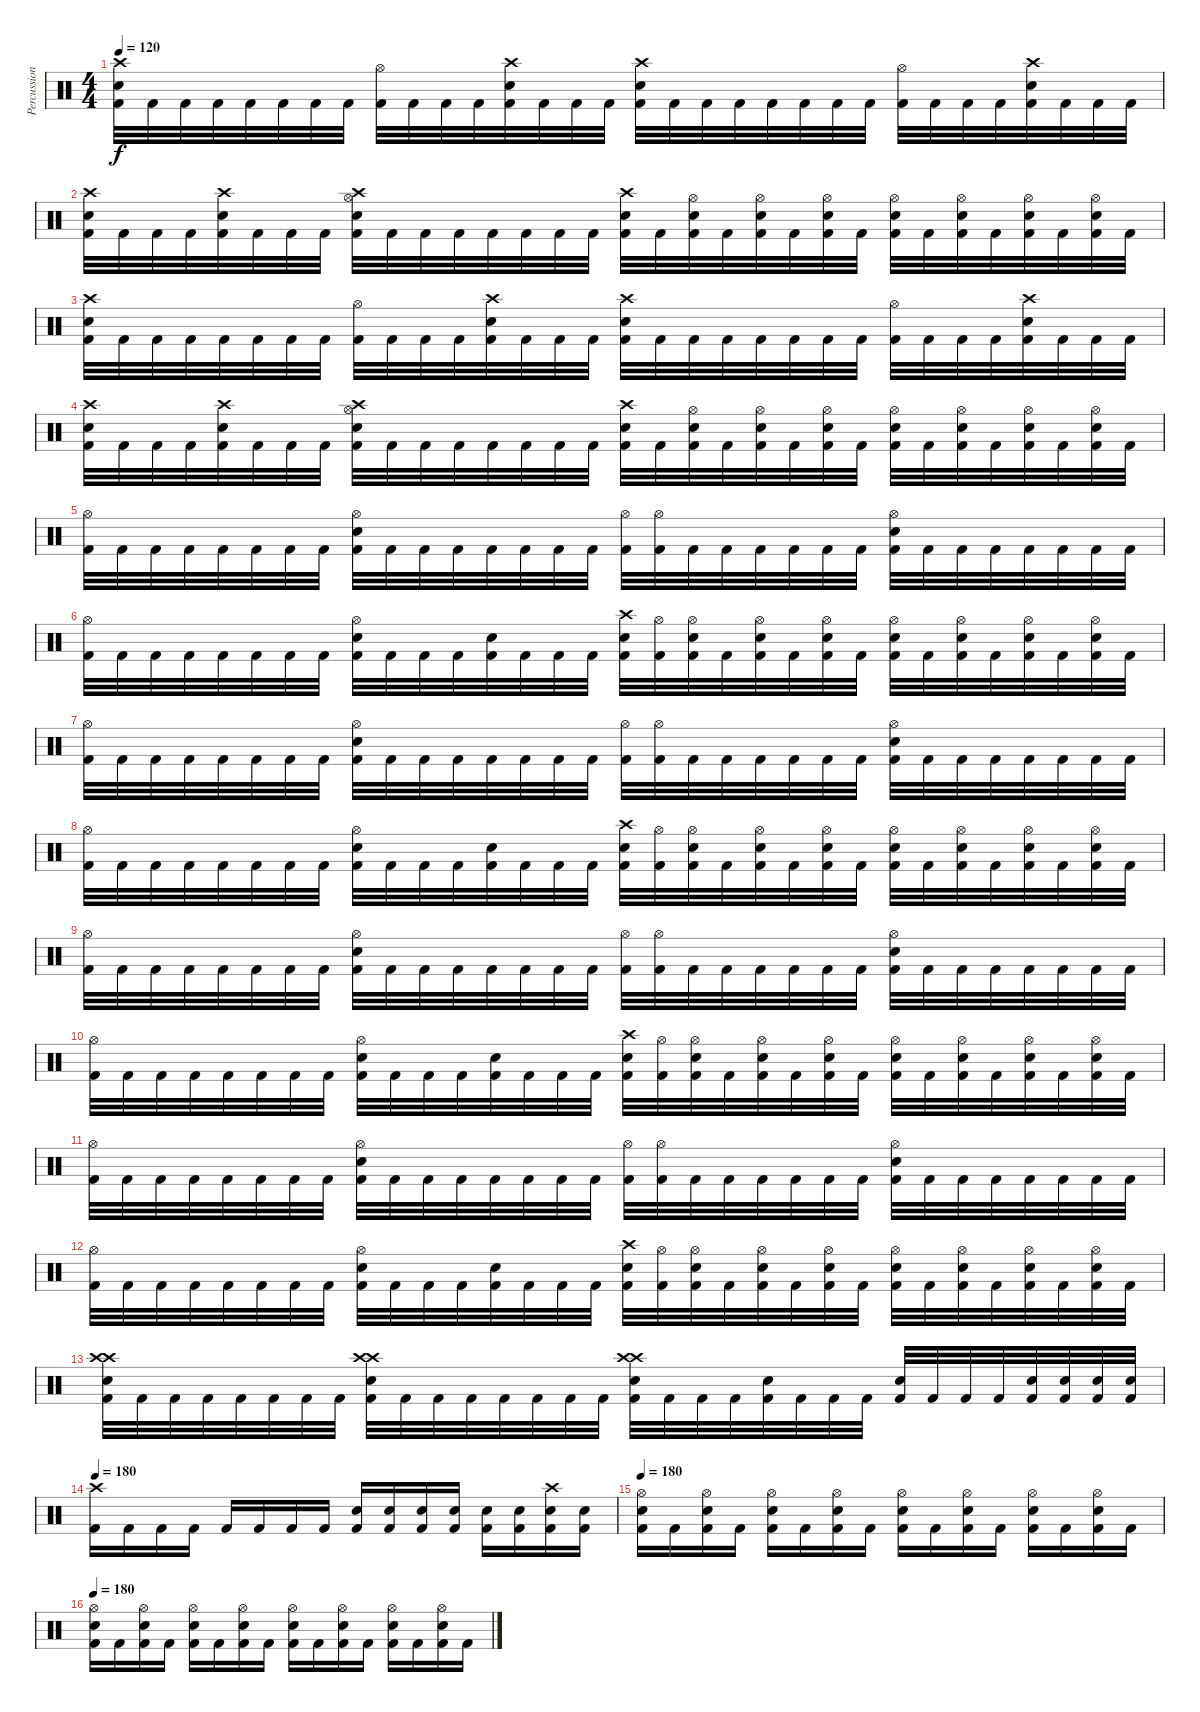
\track ("Percussion" "Percussion") {instrument percussion}
\staff {score}
\articulation defaults
\ts (4 4)
\tempo 120
\clef neutral
\ks c
("Crash high (hit)" "Snare (hit) 2" "Kick (hit) 2").32{dy f} "Kick (hit) 2".32 "Kick (hit) 2".32 "Kick (hit) 2".32 "Kick (hit) 2".32 "Kick (hit) 2".32 "Kick (hit) 2".32 "Kick (hit) 2".32 ("Hi-Hat (open)" "Kick (hit) 2").32 "Kick (hit) 2".32 "Kick (hit) 2".32 "Kick (hit) 2".32 ("Crash high (hit)" "Snare (hit) 2" "Kick (hit) 2").32 "Kick (hit) 2".32 "Kick (hit) 2".32 "Kick (hit) 2".32 ("Crash high (hit)" "Snare (hit) 2" "Kick (hit) 2").32 "Kick (hit) 2".32 "Kick (hit) 2".32 "Kick (hit) 2".32 "Kick (hit) 2".32 "Kick (hit) 2".32 "Kick (hit) 2".32 "Kick (hit) 2".32 ("Hi-Hat (open)" "Kick (hit) 2").32 "Kick (hit) 2".32 "Kick (hit) 2".32 "Kick (hit) 2".32 ("Crash high (hit)" "Snare (hit) 2" "Kick (hit) 2").32 "Kick (hit) 2".32 "Kick (hit) 2".32 "Kick (hit) 2".32 |
("Crash high (hit)" "Snare (hit) 2" "Kick (hit) 2").32 "Kick (hit) 2".32 "Kick (hit) 2".32 "Kick (hit) 2".32 ("Crash high (hit)" "Snare (hit) 2" "Kick (hit) 2").32 "Kick (hit) 2".32 "Kick (hit) 2".32 "Kick (hit) 2".32 ("Crash high (hit)" "Snare (hit) 2" "Hi-Hat (open)" "Kick (hit) 2").32 "Kick (hit) 2".32 "Kick (hit) 2".32 "Kick (hit) 2".32 "Kick (hit) 2".32 "Kick (hit) 2".32 "Kick (hit) 2".32 "Kick (hit) 2".32 ("Crash high (hit)" "Snare (hit) 2" "Kick (hit) 2").32 "Kick (hit) 2".32 ("Hi-Hat (open)" "Snare (hit) 2" "Kick (hit) 2").32 "Kick (hit) 2".32 ("Hi-Hat (open)" "Snare (hit) 2" "Kick (hit) 2").32 "Kick (hit) 2".32 ("Hi-Hat (open)" "Snare (hit) 2" "Kick (hit) 2").32 "Kick (hit) 2".32 ("Hi-Hat (open)" "Snare (hit) 2" "Kick (hit) 2").32 "Kick (hit) 2".32 ("Hi-Hat (open)" "Snare (hit) 2" "Kick (hit) 2").32 "Kick (hit) 2".32 ("Hi-Hat (open)" "Snare (hit) 2" "Kick (hit) 2").32 "Kick (hit) 2".32 ("Hi-Hat (open)" "Snare (hit) 2" "Kick (hit) 2").32 "Kick (hit) 2".32 |
("Crash high (hit)" "Snare (hit) 2" "Kick (hit) 2").32 "Kick (hit) 2".32 "Kick (hit) 2".32 "Kick (hit) 2".32 "Kick (hit) 2".32 "Kick (hit) 2".32 "Kick (hit) 2".32 "Kick (hit) 2".32 ("Hi-Hat (open)" "Kick (hit) 2").32 "Kick (hit) 2".32 "Kick (hit) 2".32 "Kick (hit) 2".32 ("Crash high (hit)" "Snare (hit) 2" "Kick (hit) 2").32 "Kick (hit) 2".32 "Kick (hit) 2".32 "Kick (hit) 2".32 ("Crash high (hit)" "Snare (hit) 2" "Kick (hit) 2").32 "Kick (hit) 2".32 "Kick (hit) 2".32 "Kick (hit) 2".32 "Kick (hit) 2".32 "Kick (hit) 2".32 "Kick (hit) 2".32 "Kick (hit) 2".32 ("Hi-Hat (open)" "Kick (hit) 2").32 "Kick (hit) 2".32 "Kick (hit) 2".32 "Kick (hit) 2".32 ("Crash high (hit)" "Snare (hit) 2" "Kick (hit) 2").32 "Kick (hit) 2".32 "Kick (hit) 2".32 "Kick (hit) 2".32 |
("Crash high (hit)" "Snare (hit) 2" "Kick (hit) 2").32 "Kick (hit) 2".32 "Kick (hit) 2".32 "Kick (hit) 2".32 ("Crash high (hit)" "Snare (hit) 2" "Kick (hit) 2").32 "Kick (hit) 2".32 "Kick (hit) 2".32 "Kick (hit) 2".32 ("Crash high (hit)" "Snare (hit) 2" "Hi-Hat (open)" "Kick (hit) 2").32 "Kick (hit) 2".32 "Kick (hit) 2".32 "Kick (hit) 2".32 "Kick (hit) 2".32 "Kick (hit) 2".32 "Kick (hit) 2".32 "Kick (hit) 2".32 ("Crash high (hit)" "Snare (hit) 2" "Kick (hit) 2").32 "Kick (hit) 2".32 ("Hi-Hat (open)" "Snare (hit) 2" "Kick (hit) 2").32 "Kick (hit) 2".32 ("Hi-Hat (open)" "Snare (hit) 2" "Kick (hit) 2").32 "Kick (hit) 2".32 ("Hi-Hat (open)" "Snare (hit) 2" "Kick (hit) 2").32 "Kick (hit) 2".32 ("Hi-Hat (open)" "Snare (hit) 2" "Kick (hit) 2").32 "Kick (hit) 2".32 ("Hi-Hat (open)" "Snare (hit) 2" "Kick (hit) 2").32 "Kick (hit) 2".32 ("Hi-Hat (open)" "Snare (hit) 2" "Kick (hit) 2").32 "Kick (hit) 2".32 ("Hi-Hat (open)" "Snare (hit) 2" "Kick (hit) 2").32 "Kick (hit) 2".32 |
("Hi-Hat (open)" "Kick (hit) 2").32 "Kick (hit) 2".32 "Kick (hit) 2".32 "Kick (hit) 2".32 "Kick (hit) 2".32 "Kick (hit) 2".32 "Kick (hit) 2".32 "Kick (hit) 2".32 ("Hi-Hat (open)" "Snare (hit) 2" "Kick (hit) 2").32 "Kick (hit) 2".32 "Kick (hit) 2".32 "Kick (hit) 2".32 "Kick (hit) 2".32 "Kick (hit) 2".32 "Kick (hit) 2".32 "Kick (hit) 2".32 ("Hi-Hat (open)" "Kick (hit) 2").32 ("Hi-Hat (open)" "Kick (hit) 2").32 "Kick (hit) 2".32 "Kick (hit) 2".32 "Kick (hit) 2".32 "Kick (hit) 2".32 "Kick (hit) 2".32 "Kick (hit) 2".32 ("Hi-Hat (open)" "Snare (hit) 2" "Kick (hit) 2").32 "Kick (hit) 2".32 "Kick (hit) 2".32 "Kick (hit) 2".32 "Kick (hit) 2".32 "Kick (hit) 2".32 "Kick (hit) 2".32 "Kick (hit) 2".32 |
("Hi-Hat (open)" "Kick (hit) 2").32 "Kick (hit) 2".32 "Kick (hit) 2".32 "Kick (hit) 2".32 "Kick (hit) 2".32 "Kick (hit) 2".32 "Kick (hit) 2".32 "Kick (hit) 2".32 ("Hi-Hat (open)" "Snare (hit) 2" "Kick (hit) 2").32 "Kick (hit) 2".32 "Kick (hit) 2".32 "Kick (hit) 2".32 ("Snare (hit) 2" "Kick (hit) 2").32 "Kick (hit) 2".32 "Kick (hit) 2".32 "Kick (hit) 2".32 ("Crash high (hit)" "Snare (hit) 2" "Kick (hit) 2").32 ("Hi-Hat (open)" "Kick (hit) 2").32 ("Hi-Hat (open)" "Snare (hit) 2" "Kick (hit) 2").32 "Kick (hit) 2".32 ("Hi-Hat (open)" "Snare (hit) 2" "Kick (hit) 2").32 "Kick (hit) 2".32 ("Hi-Hat (open)" "Snare (hit) 2" "Kick (hit) 2").32 "Kick (hit) 2".32 ("Hi-Hat (open)" "Snare (hit) 2" "Kick (hit) 2").32 "Kick (hit) 2".32 ("Hi-Hat (open)" "Snare (hit) 2" "Kick (hit) 2").32 "Kick (hit) 2".32 ("Hi-Hat (open)" "Snare (hit) 2" "Kick (hit) 2").32 "Kick (hit) 2".32 ("Hi-Hat (open)" "Snare (hit) 2" "Kick (hit) 2").32 "Kick (hit) 2".32 |
("Hi-Hat (open)" "Kick (hit) 2").32 "Kick (hit) 2".32 "Kick (hit) 2".32 "Kick (hit) 2".32 "Kick (hit) 2".32 "Kick (hit) 2".32 "Kick (hit) 2".32 "Kick (hit) 2".32 ("Hi-Hat (open)" "Snare (hit) 2" "Kick (hit) 2").32 "Kick (hit) 2".32 "Kick (hit) 2".32 "Kick (hit) 2".32 "Kick (hit) 2".32 "Kick (hit) 2".32 "Kick (hit) 2".32 "Kick (hit) 2".32 ("Hi-Hat (open)" "Kick (hit) 2").32 ("Hi-Hat (open)" "Kick (hit) 2").32 "Kick (hit) 2".32 "Kick (hit) 2".32 "Kick (hit) 2".32 "Kick (hit) 2".32 "Kick (hit) 2".32 "Kick (hit) 2".32 ("Hi-Hat (open)" "Snare (hit) 2" "Kick (hit) 2").32 "Kick (hit) 2".32 "Kick (hit) 2".32 "Kick (hit) 2".32 "Kick (hit) 2".32 "Kick (hit) 2".32 "Kick (hit) 2".32 "Kick (hit) 2".32 |
("Hi-Hat (open)" "Kick (hit) 2").32 "Kick (hit) 2".32 "Kick (hit) 2".32 "Kick (hit) 2".32 "Kick (hit) 2".32 "Kick (hit) 2".32 "Kick (hit) 2".32 "Kick (hit) 2".32 ("Hi-Hat (open)" "Snare (hit) 2" "Kick (hit) 2").32 "Kick (hit) 2".32 "Kick (hit) 2".32 "Kick (hit) 2".32 ("Snare (hit) 2" "Kick (hit) 2").32 "Kick (hit) 2".32 "Kick (hit) 2".32 "Kick (hit) 2".32 ("Crash high (hit)" "Snare (hit) 2" "Kick (hit) 2").32 ("Hi-Hat (open)" "Kick (hit) 2").32 ("Hi-Hat (open)" "Snare (hit) 2" "Kick (hit) 2").32 "Kick (hit) 2".32 ("Hi-Hat (open)" "Snare (hit) 2" "Kick (hit) 2").32 "Kick (hit) 2".32 ("Hi-Hat (open)" "Snare (hit) 2" "Kick (hit) 2").32 "Kick (hit) 2".32 ("Hi-Hat (open)" "Snare (hit) 2" "Kick (hit) 2").32 "Kick (hit) 2".32 ("Hi-Hat (open)" "Snare (hit) 2" "Kick (hit) 2").32 "Kick (hit) 2".32 ("Hi-Hat (open)" "Snare (hit) 2" "Kick (hit) 2").32 "Kick (hit) 2".32 ("Hi-Hat (open)" "Snare (hit) 2" "Kick (hit) 2").32 "Kick (hit) 2".32 |
("Hi-Hat (open)" "Kick (hit) 2").32 "Kick (hit) 2".32 "Kick (hit) 2".32 "Kick (hit) 2".32 "Kick (hit) 2".32 "Kick (hit) 2".32 "Kick (hit) 2".32 "Kick (hit) 2".32 ("Hi-Hat (open)" "Snare (hit) 2" "Kick (hit) 2").32 "Kick (hit) 2".32 "Kick (hit) 2".32 "Kick (hit) 2".32 "Kick (hit) 2".32 "Kick (hit) 2".32 "Kick (hit) 2".32 "Kick (hit) 2".32 ("Hi-Hat (open)" "Kick (hit) 2").32 ("Hi-Hat (open)" "Kick (hit) 2").32 "Kick (hit) 2".32 "Kick (hit) 2".32 "Kick (hit) 2".32 "Kick (hit) 2".32 "Kick (hit) 2".32 "Kick (hit) 2".32 ("Hi-Hat (open)" "Snare (hit) 2" "Kick (hit) 2").32 "Kick (hit) 2".32 "Kick (hit) 2".32 "Kick (hit) 2".32 "Kick (hit) 2".32 "Kick (hit) 2".32 "Kick (hit) 2".32 "Kick (hit) 2".32 |
("Hi-Hat (open)" "Kick (hit) 2").32 "Kick (hit) 2".32 "Kick (hit) 2".32 "Kick (hit) 2".32 "Kick (hit) 2".32 "Kick (hit) 2".32 "Kick (hit) 2".32 "Kick (hit) 2".32 ("Hi-Hat (open)" "Snare (hit) 2" "Kick (hit) 2").32 "Kick (hit) 2".32 "Kick (hit) 2".32 "Kick (hit) 2".32 ("Snare (hit) 2" "Kick (hit) 2").32 "Kick (hit) 2".32 "Kick (hit) 2".32 "Kick (hit) 2".32 ("Crash high (hit)" "Snare (hit) 2" "Kick (hit) 2").32 ("Hi-Hat (open)" "Kick (hit) 2").32 ("Hi-Hat (open)" "Snare (hit) 2" "Kick (hit) 2").32 "Kick (hit) 2".32 ("Hi-Hat (open)" "Snare (hit) 2" "Kick (hit) 2").32 "Kick (hit) 2".32 ("Hi-Hat (open)" "Snare (hit) 2" "Kick (hit) 2").32 "Kick (hit) 2".32 ("Hi-Hat (open)" "Snare (hit) 2" "Kick (hit) 2").32 "Kick (hit) 2".32 ("Hi-Hat (open)" "Snare (hit) 2" "Kick (hit) 2").32 "Kick (hit) 2".32 ("Hi-Hat (open)" "Snare (hit) 2" "Kick (hit) 2").32 "Kick (hit) 2".32 ("Hi-Hat (open)" "Snare (hit) 2" "Kick (hit) 2").32 "Kick (hit) 2".32 |
("Hi-Hat (open)" "Kick (hit) 2").32 "Kick (hit) 2".32 "Kick (hit) 2".32 "Kick (hit) 2".32 "Kick (hit) 2".32 "Kick (hit) 2".32 "Kick (hit) 2".32 "Kick (hit) 2".32 ("Hi-Hat (open)" "Snare (hit) 2" "Kick (hit) 2").32 "Kick (hit) 2".32 "Kick (hit) 2".32 "Kick (hit) 2".32 "Kick (hit) 2".32 "Kick (hit) 2".32 "Kick (hit) 2".32 "Kick (hit) 2".32 ("Hi-Hat (open)" "Kick (hit) 2").32 ("Hi-Hat (open)" "Kick (hit) 2").32 "Kick (hit) 2".32 "Kick (hit) 2".32 "Kick (hit) 2".32 "Kick (hit) 2".32 "Kick (hit) 2".32 "Kick (hit) 2".32 ("Hi-Hat (open)" "Snare (hit) 2" "Kick (hit) 2").32 "Kick (hit) 2".32 "Kick (hit) 2".32 "Kick (hit) 2".32 "Kick (hit) 2".32 "Kick (hit) 2".32 "Kick (hit) 2".32 "Kick (hit) 2".32 |
("Hi-Hat (open)" "Kick (hit) 2").32 "Kick (hit) 2".32 "Kick (hit) 2".32 "Kick (hit) 2".32 "Kick (hit) 2".32 "Kick (hit) 2".32 "Kick (hit) 2".32 "Kick (hit) 2".32 ("Hi-Hat (open)" "Snare (hit) 2" "Kick (hit) 2").32 "Kick (hit) 2".32 "Kick (hit) 2".32 "Kick (hit) 2".32 ("Snare (hit) 2" "Kick (hit) 2").32 "Kick (hit) 2".32 "Kick (hit) 2".32 "Kick (hit) 2".32 ("Crash high (hit)" "Snare (hit) 2" "Kick (hit) 2").32 ("Hi-Hat (open)" "Kick (hit) 2").32 ("Hi-Hat (open)" "Snare (hit) 2" "Kick (hit) 2").32 "Kick (hit) 2".32 ("Hi-Hat (open)" "Snare (hit) 2" "Kick (hit) 2").32 "Kick (hit) 2".32 ("Hi-Hat (open)" "Snare (hit) 2" "Kick (hit) 2").32 "Kick (hit) 2".32 ("Hi-Hat (open)" "Snare (hit) 2" "Kick (hit) 2").32 "Kick (hit) 2".32 ("Hi-Hat (open)" "Snare (hit) 2" "Kick (hit) 2").32 "Kick (hit) 2".32 ("Hi-Hat (open)" "Snare (hit) 2" "Kick (hit) 2").32 "Kick (hit) 2".32 ("Hi-Hat (open)" "Snare (hit) 2" "Kick (hit) 2").32 "Kick (hit) 2".32 |
("Crash high (hit)" "Crash high (hit)" "Snare (hit) 2" "Kick (hit) 2").32 "Kick (hit) 2".32 "Kick (hit) 2".32 "Kick (hit) 2".32 "Kick (hit) 2".32 "Kick (hit) 2".32 "Kick (hit) 2".32 "Kick (hit) 2".32 ("Crash high (hit)" "Crash high (hit)" "Snare (hit) 2" "Kick (hit) 2").32 "Kick (hit) 2".32 "Kick (hit) 2".32 "Kick (hit) 2".32 "Kick (hit) 2".32 "Kick (hit) 2".32 "Kick (hit) 2".32 "Kick (hit) 2".32 ("Crash high (hit)" "Crash high (hit)" "Snare (hit) 2" "Kick (hit) 2").32 "Kick (hit) 2".32 "Kick (hit) 2".32 "Kick (hit) 2".32 ("Snare (hit) 2" "Kick (hit) 2").32 "Kick (hit) 2".32 "Kick (hit) 2".32 "Kick (hit) 2".32 ("Snare (hit) 2" "Kick (hit) 2").32 "Kick (hit) 2".32 "Kick (hit) 2".32 "Kick (hit) 2".32 ("Snare (hit) 2" "Kick (hit) 2").32 ("Snare (hit) 2" "Kick (hit) 2").32 ("Snare (hit) 2" "Kick (hit) 2").32 ("Snare (hit) 2" "Kick (hit) 2").32 |
\tempo 180
("Crash high (hit)" "Kick (hit) 2").16 "Kick (hit) 2".16 "Kick (hit) 2".16 "Kick (hit) 2".16 "Kick (hit) 2".16 "Kick (hit) 2".16 "Kick (hit) 2".16 "Kick (hit) 2".16 ("Snare (hit) 2" "Kick (hit) 2").16 ("Snare (hit) 2" "Kick (hit) 2").16 ("Snare (hit) 2" "Kick (hit) 2").16 ("Snare (hit) 2" "Kick (hit) 2").16 ("Snare (hit) 2" "Kick (hit) 2").16 ("Snare (hit) 2" "Kick (hit) 2").16 ("Crash high (hit)" "Snare (hit) 2" "Kick (hit) 2").16 ("Snare (hit) 2" "Kick (hit) 2").16 |
\tempo 180
("Hi-Hat (open)" "Snare (hit) 2" "Kick (hit) 2").16 "Kick (hit) 2".16 ("Hi-Hat (open)" "Snare (hit) 2" "Kick (hit) 2").16 "Kick (hit) 2".16 ("Hi-Hat (open)" "Snare (hit) 2" "Kick (hit) 2").16 "Kick (hit) 2".16 ("Hi-Hat (open)" "Snare (hit) 2" "Kick (hit) 2").16 "Kick (hit) 2".16 ("Hi-Hat (open)" "Snare (hit) 2" "Kick (hit) 2").16 "Kick (hit) 2".16 ("Hi-Hat (open)" "Snare (hit) 2" "Kick (hit) 2").16 "Kick (hit) 2".16 ("Hi-Hat (open)" "Snare (hit) 2" "Kick (hit) 2").16 "Kick (hit) 2".16 ("Hi-Hat (open)" "Snare (hit) 2" "Kick (hit) 2").16 "Kick (hit) 2".16 |
\tempo 180
("Hi-Hat (open)" "Snare (hit) 2" "Kick (hit) 2").16 "Kick (hit) 2".16 ("Hi-Hat (open)" "Snare (hit) 2" "Kick (hit) 2").16 "Kick (hit) 2".16 ("Hi-Hat (open)" "Snare (hit) 2" "Kick (hit) 2").16 "Kick (hit) 2".16 ("Hi-Hat (open)" "Snare (hit) 2" "Kick (hit) 2").16 "Kick (hit) 2".16 ("Hi-Hat (open)" "Snare (hit) 2" "Kick (hit) 2").16 "Kick (hit) 2".16 ("Hi-Hat (open)" "Snare (hit) 2" "Kick (hit) 2").16 "Kick (hit) 2".16 ("Hi-Hat (open)" "Snare (hit) 2" "Kick (hit) 2").16 "Kick (hit) 2".16 ("Hi-Hat (open)" "Snare (hit) 2" "Kick (hit) 2").16 "Kick (hit) 2".16
